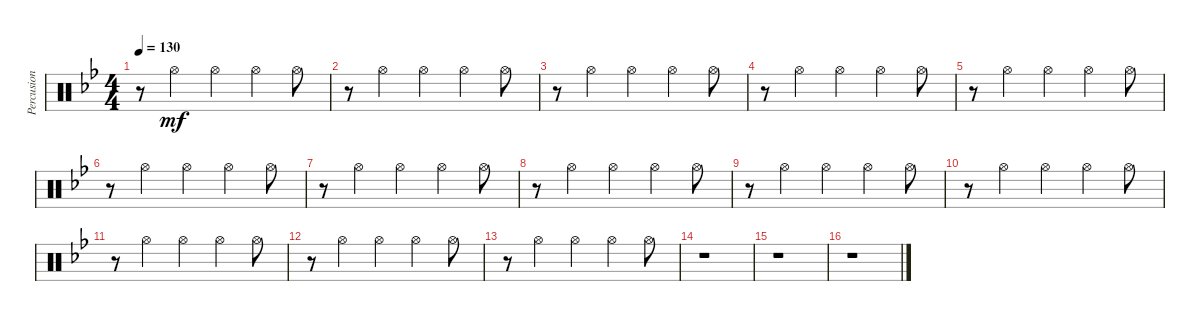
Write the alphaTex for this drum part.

\track ("Percusion IV" "Percusion ") {instrument percussion}
\staff {score}
\articulation defaults
\ts (4 4)
\tempo 130
\clef neutral
\ks gminor
r.8{dy mf} "Hi-Hat (open)".4 "Hi-Hat (open)".4 "Hi-Hat (open)".4 "Hi-Hat (open)".8 |
r.8 "Hi-Hat (open)".4 "Hi-Hat (open)".4 "Hi-Hat (open)".4 "Hi-Hat (open)".8 |
r.8 "Hi-Hat (open)".4 "Hi-Hat (open)".4 "Hi-Hat (open)".4 "Hi-Hat (open)".8 |
r.8 "Hi-Hat (open)".4 "Hi-Hat (open)".4 "Hi-Hat (open)".4 "Hi-Hat (open)".8 |
r.8 "Hi-Hat (open)".4 "Hi-Hat (open)".4 "Hi-Hat (open)".4 "Hi-Hat (open)".8 |
r.8 "Hi-Hat (open)".4 "Hi-Hat (open)".4 "Hi-Hat (open)".4 "Hi-Hat (open)".8 |
r.8 "Hi-Hat (open)".4 "Hi-Hat (open)".4 "Hi-Hat (open)".4 "Hi-Hat (open)".8 |
r.8 "Hi-Hat (open)".4 "Hi-Hat (open)".4 "Hi-Hat (open)".4 "Hi-Hat (open)".8 |
r.8 "Hi-Hat (open)".4 "Hi-Hat (open)".4 "Hi-Hat (open)".4 "Hi-Hat (open)".8 |
r.8 "Hi-Hat (open)".4 "Hi-Hat (open)".4 "Hi-Hat (open)".4 "Hi-Hat (open)".8 |
r.8 "Hi-Hat (open)".4 "Hi-Hat (open)".4 "Hi-Hat (open)".4 "Hi-Hat (open)".8 |
r.8 "Hi-Hat (open)".4 "Hi-Hat (open)".4 "Hi-Hat (open)".4 "Hi-Hat (open)".8 |
r.8 "Hi-Hat (open)".4 "Hi-Hat (open)".4 "Hi-Hat (open)".4 "Hi-Hat (open)".8 |
r.1 |
r.1 |
r.1
